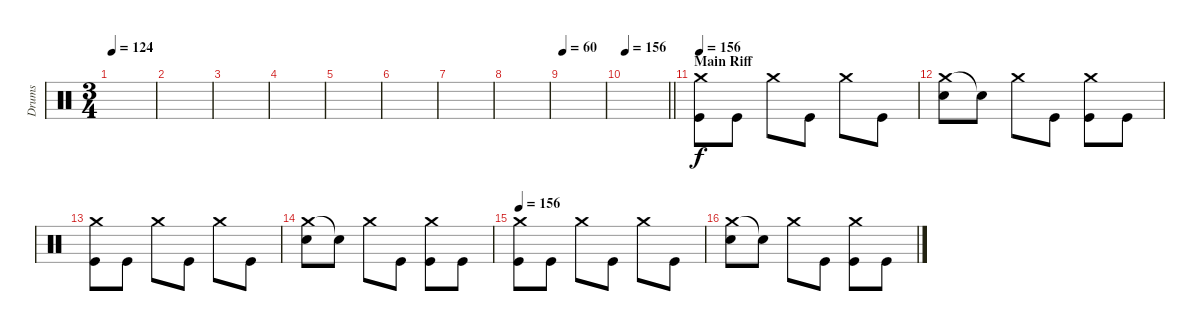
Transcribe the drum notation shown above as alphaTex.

\track ("Drums" "Drums") {instrument percussion}
\staff {score}
\articulation defaults
\ts (3 4)
\tempo 124
\clef neutral
\ks c
|
|
|
|
|
|
|
|
\tempo 60
|
\tempo 156
\barLineRight lightlight
|
\section ("" "Main Riff")
\tempo 156
("Crash medium (hit)" "Kick (hit)").8 "Kick (hit)".8 "Crash medium (hit)".8 "Kick (hit)".8 "Crash medium (hit)".8 "Kick (hit)".8 |
("Crash medium (hit)" "Snare (hit) 2").8 "Snare (hit)"{t}.8 "Crash medium (hit)".8 "Kick (hit)".8 ("Crash medium (hit)" "Kick (hit)").8 "Kick (hit)".8 |
("Crash medium (hit)" "Kick (hit)").8 "Kick (hit)".8 "Crash medium (hit)".8 "Kick (hit)".8 "Crash medium (hit)".8 "Kick (hit)".8 |
("Crash medium (hit)" "Snare (hit) 2").8 "Snare (hit)"{t}.8 "Crash medium (hit)".8 "Kick (hit)".8 ("Crash medium (hit)" "Kick (hit)").8 "Kick (hit)".8 |
\tempo 156
("Crash medium (hit)" "Kick (hit)").8 "Kick (hit)".8 "Crash medium (hit)".8 "Kick (hit)".8 "Crash medium (hit)".8 "Kick (hit)".8 |
("Crash medium (hit)" "Snare (hit) 2").8 "Snare (hit)"{t}.8 "Crash medium (hit)".8 "Kick (hit)".8 ("Crash medium (hit)" "Kick (hit)").8 "Kick (hit)".8
